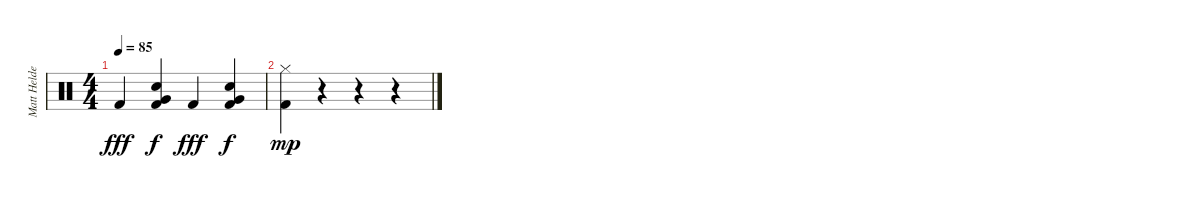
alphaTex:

\track ("Matt Helders - Drums" "Matt Helde") {instrument percussion}
\staff {score}
\articulation defaults
\ts (4 4)
\tempo 85
\clef neutral
\ks c "Kick (hit) 2".4{dy fff}
("Kick (hit) 2" "Very Low Tom (hit)" "Hand Clap (hit)").4{dy f} "Kick (hit) 2".4{dy fff} ("Kick (hit) 2" "Very Low Tom (hit)" "Hand Clap (hit)").4{dy f} |
("Hi-Hat (closed)" "Kick (hit) 2").4{dy mp} r.4 r.4 r.4
